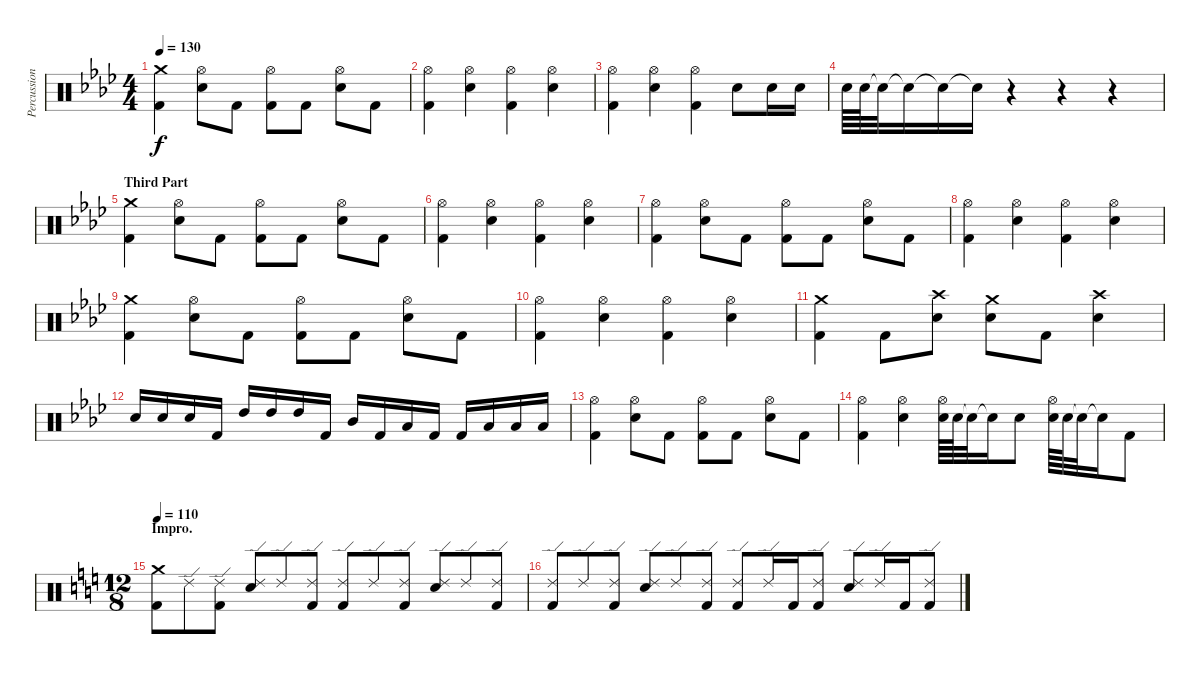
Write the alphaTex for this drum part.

\track ("Percussions" "Percussion") {instrument percussion}
\staff {score}
\articulation defaults
\ts (4 4)
\tempo 130
\clef neutral
\ks ab
("Crash medium (hit)" "Kick (hit) 2").4{dy f} ("Hi-Hat (open)" "Electric Snare (hit)").8 "Kick (hit) 2".8 ("Hi-Hat (open)" "Kick (hit) 2").8 "Kick (hit) 2".8 ("Hi-Hat (open)" "Electric Snare (hit)").8 "Kick (hit) 2".8 |
("Hi-Hat (open)" "Kick (hit) 2").4 ("Hi-Hat (open)" "Electric Snare (hit)").4 ("Hi-Hat (open)" "Kick (hit) 2").4 ("Hi-Hat (open)" "Electric Snare (hit)").4 |
("Hi-Hat (open)" "Kick (hit) 2").4 ("Hi-Hat (open)" "Electric Snare (hit)").4 ("Hi-Hat (open)" "Kick (hit) 2").4 "Electric Snare (hit)".8 "Electric Snare (hit)".16 "Electric Snare (hit)".16 |
"Electric Snare (hit)".64 "Electric Snare (hit)".64 "Snare (hit)"{t}.32 "Snare (hit)"{t}.16 "Snare (hit)"{t}.16 "Snare (hit)"{t}.16 r.4 r.4 r.4 |
\section ("" "Third Part")
("Crash medium (hit)" "Kick (hit) 2").4 ("Hi-Hat (open)" "Electric Snare (hit)").8 "Kick (hit) 2".8 ("Hi-Hat (open)" "Kick (hit) 2").8 "Kick (hit) 2".8 ("Hi-Hat (open)" "Electric Snare (hit)").8 "Kick (hit) 2".8 |
("Hi-Hat (open)" "Kick (hit) 2").4 ("Hi-Hat (open)" "Electric Snare (hit)").4 ("Hi-Hat (open)" "Kick (hit) 2").4 ("Hi-Hat (open)" "Electric Snare (hit)").4 |
("Hi-Hat (open)" "Kick (hit) 2").4 ("Hi-Hat (open)" "Electric Snare (hit)").8 "Kick (hit) 2".8 ("Hi-Hat (open)" "Kick (hit) 2").8 "Kick (hit) 2".8 ("Hi-Hat (open)" "Electric Snare (hit)").8 "Kick (hit) 2".8 |
("Hi-Hat (open)" "Kick (hit) 2").4 ("Hi-Hat (open)" "Electric Snare (hit)").4 ("Hi-Hat (open)" "Kick (hit) 2").4 ("Hi-Hat (open)" "Electric Snare (hit)").4 |
("Crash medium (hit)" "Kick (hit) 2").4 ("Hi-Hat (open)" "Electric Snare (hit)").8 "Kick (hit) 2".8 ("Hi-Hat (open)" "Kick (hit) 2").8 "Kick (hit) 2".8 ("Hi-Hat (open)" "Electric Snare (hit)").8 "Kick (hit) 2".8 |
("Hi-Hat (open)" "Kick (hit) 2").4 ("Hi-Hat (open)" "Electric Snare (hit)").4 ("Hi-Hat (open)" "Kick (hit) 2").4 ("Hi-Hat (open)" "Electric Snare (hit)").4 |
("Crash medium (hit)" "Kick (hit) 2").4 "Kick (hit) 2".8 ("Crash high (hit)" "Electric Snare (hit)").8 ("Crash medium (hit)" "Electric Snare (hit)").8 "Kick (hit) 2".8 ("Crash high (hit)" "Electric Snare (hit)").4 |
"Electric Snare (hit)".16 "Electric Snare (hit)".16 "Electric Snare (hit)".16 "Kick (hit) 2".16 "High Tom (hit)".16 "High Tom (hit)".16 "High Tom (hit)".16 "Kick (hit) 2".16 "Mid Tom (hit)".16 "Kick (hit) 2".16 "Low Tom (hit)".16 "Kick (hit) 2".16 "Kick (hit) 2".16 "Low Tom (hit)".16 "Low Tom (hit)".16 "Low Tom (hit)".16 |
("Hi-Hat (open)" "Kick (hit) 2").4 ("Hi-Hat (open)" "Electric Snare (hit)").8 "Kick (hit) 2".8 ("Hi-Hat (open)" "Kick (hit) 2").8 "Kick (hit) 2".8 ("Hi-Hat (open)" "Electric Snare (hit)").8 "Kick (hit) 2".8 |
("Hi-Hat (open)" "Kick (hit) 2").4 ("Hi-Hat (open)" "Electric Snare (hit)").4 ("Hi-Hat (open)" "Electric Snare (hit)").64 "Electric Snare (hit)".64 "Snare (hit)"{t}.32 "Snare (hit)"{t}.16 "Electric Snare (hit)".8 ("Hi-Hat (open)" "Electric Snare (hit)").64 "Electric Snare (hit)".64 "Snare (hit)"{t}.32 "Snare (hit)"{t}.16 "Kick (hit) 2".8 |
\ts (12 8)
\section ("" "Impro.")
\tempo 110
\ks c
("Crash medium (hit)" "Kick (hit) 2").8 "Ride (edge) 2".8 ("Ride (edge) 2" "Kick (hit) 2").8 ("Ride (edge) 2" "Electric Snare (hit)").8 "Ride (edge) 2".8 ("Ride (edge) 2" "Kick (hit) 2").8 ("Ride (edge) 2" "Kick (hit) 2").8 "Ride (edge) 2".8 ("Ride (edge) 2" "Kick (hit) 2").8 ("Ride (edge) 2" "Electric Snare (hit)").8 "Ride (edge) 2".8 ("Ride (edge) 2" "Kick (hit) 2").8 |
("Ride (edge) 2" "Kick (hit) 2").8 "Ride (edge) 2".8 ("Ride (edge) 2" "Kick (hit) 2").8 ("Ride (edge) 2" "Electric Snare (hit)").8 "Ride (edge) 2".8 ("Ride (edge) 2" "Kick (hit) 2").8 ("Ride (edge) 2" "Kick (hit) 2").8 "Ride (edge) 2".16 "Kick (hit) 2".16 ("Ride (edge) 2" "Kick (hit) 2").8 ("Ride (edge) 2" "Electric Snare (hit)").8 "Ride (edge) 2".16 "Kick (hit) 2".16 ("Ride (edge) 2" "Kick (hit) 2").8
